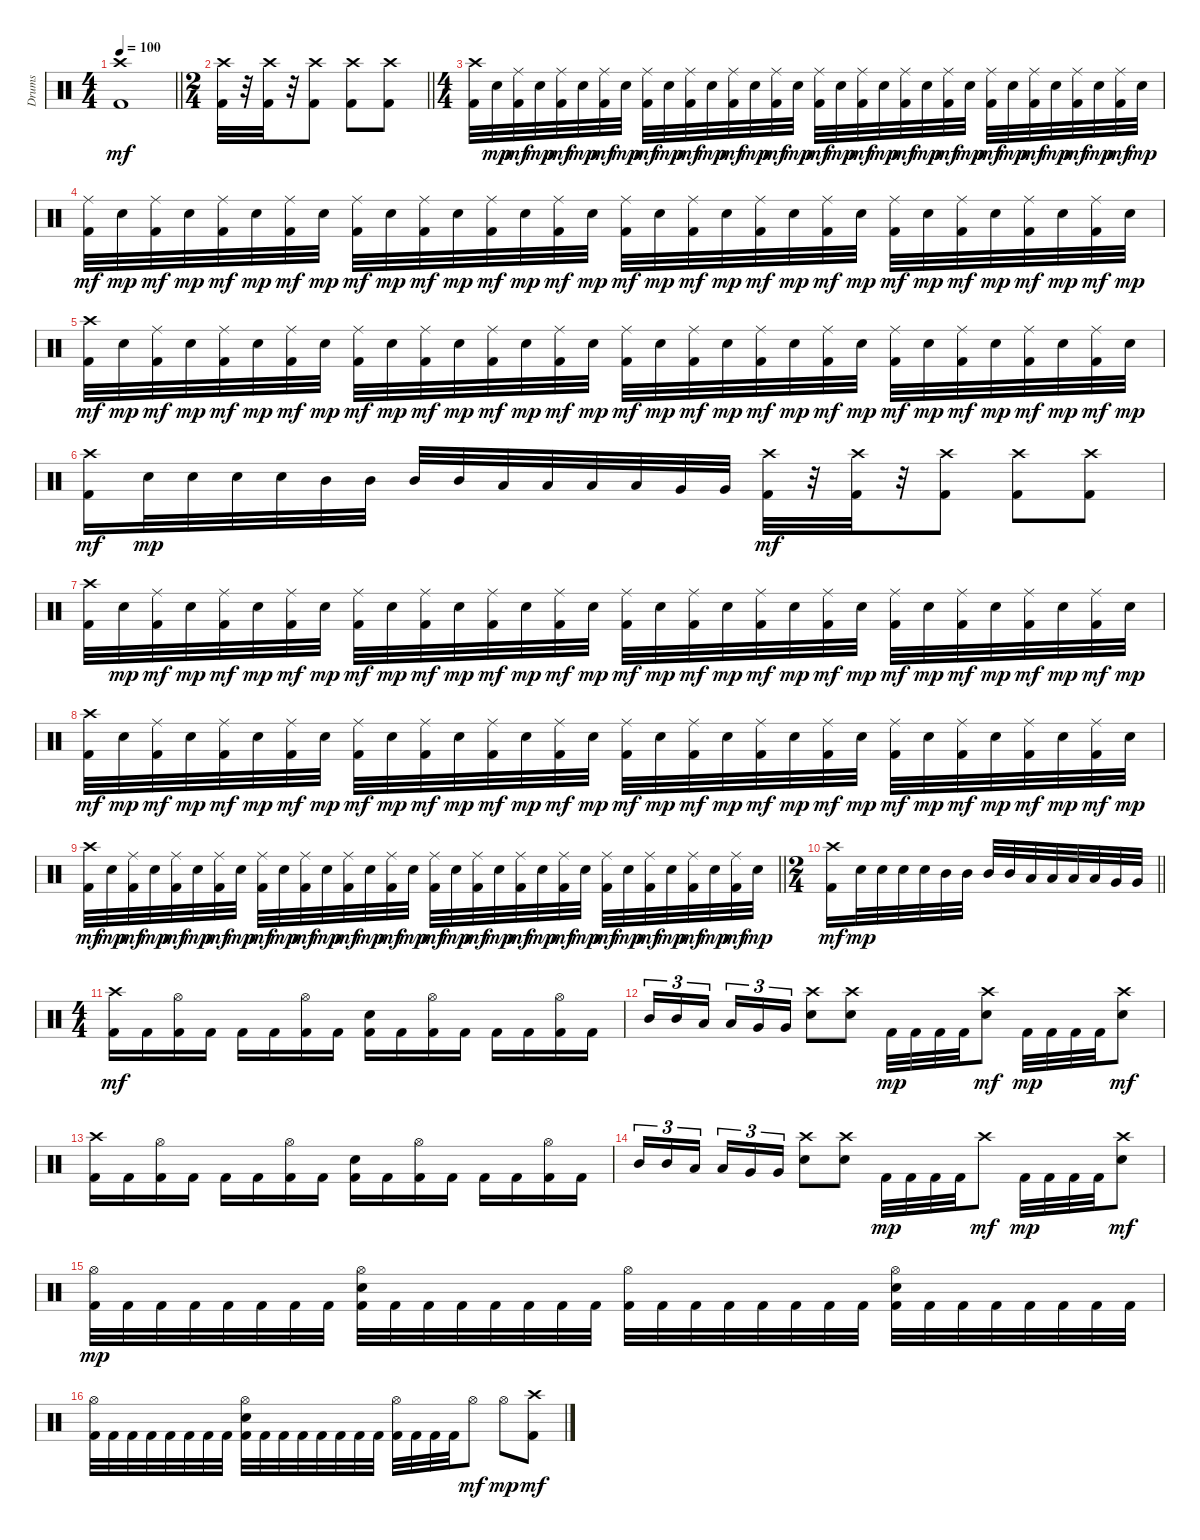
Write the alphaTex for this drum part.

\track ("Drums" "Drums") {instrument percussion}
\staff {score}
\articulation defaults
\ts (4 4)
\tempo 100
\clef neutral
\barLineRight lightlight
\ks c
("Crash high (hit)" "Kick (hit) 2").1{dy mf} |
\ts (2 4)
\barLineRight lightlight
("Crash high (hit)" "Kick (hit) 2").32 r.32 ("Crash high (hit)" "Kick (hit) 2").32 r.32 ("Crash high (hit)" "Kick (hit) 2").8 ("Crash high (hit)" "Kick (hit) 2").8 ("Crash high (hit)" "Kick (hit) 2").8 |
\ts (4 4)
("Crash high (hit)" "Kick (hit) 2").32 "Snare (hit) 2".32{dy mp} ("Ride (middle)" "Kick (hit) 2").32{dy mf} "Snare (hit) 2".32{dy mp} ("Ride (middle)" "Kick (hit) 2").32{dy mf} "Snare (hit) 2".32{dy mp} ("Ride (middle)" "Kick (hit) 2").32{dy mf} "Snare (hit) 2".32{dy mp} ("Ride (middle)" "Kick (hit) 2").32{dy mf} "Snare (hit) 2".32{dy mp} ("Ride (middle)" "Kick (hit) 2").32{dy mf} "Snare (hit) 2".32{dy mp} ("Ride (middle)" "Kick (hit) 2").32{dy mf} "Snare (hit) 2".32{dy mp} ("Ride (middle)" "Kick (hit) 2").32{dy mf} "Snare (hit) 2".32{dy mp} ("Ride (middle)" "Kick (hit) 2").32{dy mf} "Snare (hit) 2".32{dy mp} ("Ride (middle)" "Kick (hit) 2").32{dy mf} "Snare (hit) 2".32{dy mp} ("Ride (middle)" "Kick (hit) 2").32{dy mf} "Snare (hit) 2".32{dy mp} ("Ride (middle)" "Kick (hit) 2").32{dy mf} "Snare (hit) 2".32{dy mp} ("Ride (middle)" "Kick (hit) 2").32{dy mf} "Snare (hit) 2".32{dy mp} ("Ride (middle)" "Kick (hit) 2").32{dy mf} "Snare (hit) 2".32{dy mp} ("Ride (middle)" "Kick (hit) 2").32{dy mf} "Snare (hit) 2".32{dy mp} ("Ride (middle)" "Kick (hit) 2").32{dy mf} "Snare (hit) 2".32{dy mp} |
("Ride (middle)" "Kick (hit) 2").32{dy mf} "Snare (hit) 2".32{dy mp} ("Ride (middle)" "Kick (hit) 2").32{dy mf} "Snare (hit) 2".32{dy mp} ("Ride (middle)" "Kick (hit) 2").32{dy mf} "Snare (hit) 2".32{dy mp} ("Ride (middle)" "Kick (hit) 2").32{dy mf} "Snare (hit) 2".32{dy mp} ("Ride (middle)" "Kick (hit) 2").32{dy mf} "Snare (hit) 2".32{dy mp} ("Ride (middle)" "Kick (hit) 2").32{dy mf} "Snare (hit) 2".32{dy mp} ("Ride (middle)" "Kick (hit) 2").32{dy mf} "Snare (hit) 2".32{dy mp} ("Ride (middle)" "Kick (hit) 2").32{dy mf} "Snare (hit) 2".32{dy mp} ("Ride (middle)" "Kick (hit) 2").32{dy mf} "Snare (hit) 2".32{dy mp} ("Ride (middle)" "Kick (hit) 2").32{dy mf} "Snare (hit) 2".32{dy mp} ("Ride (middle)" "Kick (hit) 2").32{dy mf} "Snare (hit) 2".32{dy mp} ("Ride (middle)" "Kick (hit) 2").32{dy mf} "Snare (hit) 2".32{dy mp} ("Ride (middle)" "Kick (hit) 2").32{dy mf} "Snare (hit) 2".32{dy mp} ("Ride (middle)" "Kick (hit) 2").32{dy mf} "Snare (hit) 2".32{dy mp} ("Ride (middle)" "Kick (hit) 2").32{dy mf} "Snare (hit) 2".32{dy mp} ("Ride (middle)" "Kick (hit) 2").32{dy mf} "Snare (hit) 2".32{dy mp} |
("Crash high (hit)" "Kick (hit) 2").32{dy mf} "Snare (hit) 2".32{dy mp} ("Ride (middle)" "Kick (hit) 2").32{dy mf} "Snare (hit) 2".32{dy mp} ("Ride (middle)" "Kick (hit) 2").32{dy mf} "Snare (hit) 2".32{dy mp} ("Ride (middle)" "Kick (hit) 2").32{dy mf} "Snare (hit) 2".32{dy mp} ("Ride (middle)" "Kick (hit) 2").32{dy mf} "Snare (hit) 2".32{dy mp} ("Ride (middle)" "Kick (hit) 2").32{dy mf} "Snare (hit) 2".32{dy mp} ("Ride (middle)" "Kick (hit) 2").32{dy mf} "Snare (hit) 2".32{dy mp} ("Ride (middle)" "Kick (hit) 2").32{dy mf} "Snare (hit) 2".32{dy mp} ("Ride (middle)" "Kick (hit) 2").32{dy mf} "Snare (hit) 2".32{dy mp} ("Ride (middle)" "Kick (hit) 2").32{dy mf} "Snare (hit) 2".32{dy mp} ("Ride (middle)" "Kick (hit) 2").32{dy mf} "Snare (hit) 2".32{dy mp} ("Ride (middle)" "Kick (hit) 2").32{dy mf} "Snare (hit) 2".32{dy mp} ("Ride (middle)" "Kick (hit) 2").32{dy mf} "Snare (hit) 2".32{dy mp} ("Ride (middle)" "Kick (hit) 2").32{dy mf} "Snare (hit) 2".32{dy mp} ("Ride (middle)" "Kick (hit) 2").32{dy mf} "Snare (hit) 2".32{dy mp} ("Ride (middle)" "Kick (hit) 2").32{dy mf} "Snare (hit) 2".32{dy mp} |
("Crash high (hit)" "Kick (hit) 2").16{dy mf} "Snare (hit) 2".32{dy mp} "Snare (hit) 2".32 "Snare (hit) 2".32 "Snare (hit) 2".32 "Mid Tom (hit)".32 "Mid Tom (hit)".32 "Mid Tom (hit)".32 "Mid Tom (hit)".32 "Low Tom (hit)".32 "Low Tom (hit)".32 "Low Tom (hit)".32 "Low Tom (hit)".32 "Very Low Tom (hit)".32 "Very Low Tom (hit)".32 ("Crash high (hit)" "Kick (hit) 2").32{dy mf} r.32 ("Crash high (hit)" "Kick (hit) 2").32 r.32 ("Crash high (hit)" "Kick (hit) 2").8 ("Crash high (hit)" "Kick (hit) 2").8 ("Crash high (hit)" "Kick (hit) 2").8 |
("Crash high (hit)" "Kick (hit) 2").32 "Snare (hit) 2".32{dy mp} ("Ride (middle)" "Kick (hit) 2").32{dy mf} "Snare (hit) 2".32{dy mp} ("Ride (middle)" "Kick (hit) 2").32{dy mf} "Snare (hit) 2".32{dy mp} ("Ride (middle)" "Kick (hit) 2").32{dy mf} "Snare (hit) 2".32{dy mp} ("Ride (middle)" "Kick (hit) 2").32{dy mf} "Snare (hit) 2".32{dy mp} ("Ride (middle)" "Kick (hit) 2").32{dy mf} "Snare (hit) 2".32{dy mp} ("Ride (middle)" "Kick (hit) 2").32{dy mf} "Snare (hit) 2".32{dy mp} ("Ride (middle)" "Kick (hit) 2").32{dy mf} "Snare (hit) 2".32{dy mp} ("Ride (middle)" "Kick (hit) 2").32{dy mf} "Snare (hit) 2".32{dy mp} ("Ride (middle)" "Kick (hit) 2").32{dy mf} "Snare (hit) 2".32{dy mp} ("Ride (middle)" "Kick (hit) 2").32{dy mf} "Snare (hit) 2".32{dy mp} ("Ride (middle)" "Kick (hit) 2").32{dy mf} "Snare (hit) 2".32{dy mp} ("Ride (middle)" "Kick (hit) 2").32{dy mf} "Snare (hit) 2".32{dy mp} ("Ride (middle)" "Kick (hit) 2").32{dy mf} "Snare (hit) 2".32{dy mp} ("Ride (middle)" "Kick (hit) 2").32{dy mf} "Snare (hit) 2".32{dy mp} ("Ride (middle)" "Kick (hit) 2").32{dy mf} "Snare (hit) 2".32{dy mp} |
("Crash high (hit)" "Kick (hit) 2").32{dy mf} "Snare (hit) 2".32{dy mp} ("Ride (middle)" "Kick (hit) 2").32{dy mf} "Snare (hit) 2".32{dy mp} ("Ride (middle)" "Kick (hit) 2").32{dy mf} "Snare (hit) 2".32{dy mp} ("Ride (middle)" "Kick (hit) 2").32{dy mf} "Snare (hit) 2".32{dy mp} ("Ride (middle)" "Kick (hit) 2").32{dy mf} "Snare (hit) 2".32{dy mp} ("Ride (middle)" "Kick (hit) 2").32{dy mf} "Snare (hit) 2".32{dy mp} ("Ride (middle)" "Kick (hit) 2").32{dy mf} "Snare (hit) 2".32{dy mp} ("Ride (middle)" "Kick (hit) 2").32{dy mf} "Snare (hit) 2".32{dy mp} ("Ride (middle)" "Kick (hit) 2").32{dy mf} "Snare (hit) 2".32{dy mp} ("Ride (middle)" "Kick (hit) 2").32{dy mf} "Snare (hit) 2".32{dy mp} ("Ride (middle)" "Kick (hit) 2").32{dy mf} "Snare (hit) 2".32{dy mp} ("Ride (middle)" "Kick (hit) 2").32{dy mf} "Snare (hit) 2".32{dy mp} ("Ride (middle)" "Kick (hit) 2").32{dy mf} "Snare (hit) 2".32{dy mp} ("Ride (middle)" "Kick (hit) 2").32{dy mf} "Snare (hit) 2".32{dy mp} ("Ride (middle)" "Kick (hit) 2").32{dy mf} "Snare (hit) 2".32{dy mp} ("Ride (middle)" "Kick (hit) 2").32{dy mf} "Snare (hit) 2".32{dy mp} |
\barLineRight lightlight
("Crash high (hit)" "Kick (hit) 2").32{dy mf} "Snare (hit) 2".32{dy mp} ("Ride (middle)" "Kick (hit) 2").32{dy mf} "Snare (hit) 2".32{dy mp} ("Ride (middle)" "Kick (hit) 2").32{dy mf} "Snare (hit) 2".32{dy mp} ("Ride (middle)" "Kick (hit) 2").32{dy mf} "Snare (hit) 2".32{dy mp} ("Ride (middle)" "Kick (hit) 2").32{dy mf} "Snare (hit) 2".32{dy mp} ("Ride (middle)" "Kick (hit) 2").32{dy mf} "Snare (hit) 2".32{dy mp} ("Ride (middle)" "Kick (hit) 2").32{dy mf} "Snare (hit) 2".32{dy mp} ("Ride (middle)" "Kick (hit) 2").32{dy mf} "Snare (hit) 2".32{dy mp} ("Ride (middle)" "Kick (hit) 2").32{dy mf} "Snare (hit) 2".32{dy mp} ("Ride (middle)" "Kick (hit) 2").32{dy mf} "Snare (hit) 2".32{dy mp} ("Ride (middle)" "Kick (hit) 2").32{dy mf} "Snare (hit) 2".32{dy mp} ("Ride (middle)" "Kick (hit) 2").32{dy mf} "Snare (hit) 2".32{dy mp} ("Ride (middle)" "Kick (hit) 2").32{dy mf} "Snare (hit) 2".32{dy mp} ("Ride (middle)" "Kick (hit) 2").32{dy mf} "Snare (hit) 2".32{dy mp} ("Ride (middle)" "Kick (hit) 2").32{dy mf} "Snare (hit) 2".32{dy mp} ("Ride (middle)" "Kick (hit) 2").32{dy mf} "Snare (hit) 2".32{dy mp} |
\ts (2 4)
\barLineRight lightlight
("Crash high (hit)" "Kick (hit) 2").16{dy mf} "Snare (hit) 2".32{dy mp} "Snare (hit) 2".32 "Snare (hit) 2".32 "Snare (hit) 2".32 "Mid Tom (hit)".32 "Mid Tom (hit)".32 "Mid Tom (hit)".32 "Mid Tom (hit)".32 "Low Tom (hit)".32 "Low Tom (hit)".32 "Low Tom (hit)".32 "Low Tom (hit)".32 "Very Low Tom (hit)".32 "Very Low Tom (hit)".32 |
\ts (4 4)
("Crash high (hit)" "Kick (hit) 2").16{dy mf} "Kick (hit) 2".16 ("Hi-Hat (open)" "Kick (hit) 2").16 "Kick (hit) 2".16 "Kick (hit) 2".16 "Kick (hit) 2".16 ("Hi-Hat (open)" "Kick (hit) 2").16 "Kick (hit) 2".16 ("Snare (hit) 2" "Kick (hit) 2").16 "Kick (hit) 2".16 ("Hi-Hat (open)" "Kick (hit) 2").16 "Kick (hit) 2".16 "Kick (hit) 2".16 "Kick (hit) 2".16 ("Hi-Hat (open)" "Kick (hit) 2").16 "Kick (hit) 2".16 |
"Mid Tom (hit)".16{tu (3 2)} "Mid Tom (hit)".16{tu (3 2)} "Low Tom (hit)".16{tu (3 2) beam splitsecondary} "Low Tom (hit)".16{tu (3 2)} "Very Low Tom (hit)".16{tu (3 2)} "Very Low Tom (hit)".16{tu (3 2)} ("Crash high (hit)" "Snare (hit) 2").8 ("Crash high (hit)" "Snare (hit) 2").8 "Kick (hit) 2".32{dy mp} "Kick (hit) 2".32 "Kick (hit) 2".32 "Kick (hit) 2".32 ("Crash high (hit)" "Snare (hit) 2").8{dy mf} "Kick (hit) 2".32{dy mp} "Kick (hit) 2".32 "Kick (hit) 2".32 "Kick (hit) 2".32 ("Crash high (hit)" "Snare (hit) 2").8{dy mf} |
("Crash high (hit)" "Kick (hit) 2").16 "Kick (hit) 2".16 ("Hi-Hat (open)" "Kick (hit) 2").16 "Kick (hit) 2".16 "Kick (hit) 2".16 "Kick (hit) 2".16 ("Hi-Hat (open)" "Kick (hit) 2").16 "Kick (hit) 2".16 ("Snare (hit) 2" "Kick (hit) 2").16 "Kick (hit) 2".16 ("Hi-Hat (open)" "Kick (hit) 2").16 "Kick (hit) 2".16 "Kick (hit) 2".16 "Kick (hit) 2".16 ("Hi-Hat (open)" "Kick (hit) 2").16 "Kick (hit) 2".16 |
"Mid Tom (hit)".16{tu (3 2)} "Mid Tom (hit)".16{tu (3 2)} "Low Tom (hit)".16{tu (3 2) beam splitsecondary} "Low Tom (hit)".16{tu (3 2)} "Very Low Tom (hit)".16{tu (3 2)} "Very Low Tom (hit)".16{tu (3 2)} ("Crash high (hit)" "Snare (hit) 2").8 ("Crash high (hit)" "Snare (hit) 2").8 "Kick (hit) 2".32{dy mp} "Kick (hit) 2".32 "Kick (hit) 2".32 "Kick (hit) 2".32 "Crash high (hit)".8{dy mf} "Kick (hit) 2".32{dy mp} "Kick (hit) 2".32 "Kick (hit) 2".32 "Kick (hit) 2".32 ("Crash high (hit)" "Snare (hit) 2").8{dy mf} |
("Hi-Hat (open)" "Kick (hit) 2").32{dy mp} "Kick (hit) 2".32 "Kick (hit) 2".32 "Kick (hit) 2".32 "Kick (hit) 2".32 "Kick (hit) 2".32 "Kick (hit) 2".32 "Kick (hit) 2".32 ("Hi-Hat (open)" "Snare (hit) 2" "Kick (hit) 2").32 "Kick (hit) 2".32 "Kick (hit) 2".32 "Kick (hit) 2".32 "Kick (hit) 2".32 "Kick (hit) 2".32 "Kick (hit) 2".32 "Kick (hit) 2".32 ("Hi-Hat (open)" "Kick (hit) 2").32 "Kick (hit) 2".32 "Kick (hit) 2".32 "Kick (hit) 2".32 "Kick (hit) 2".32 "Kick (hit) 2".32 "Kick (hit) 2".32 "Kick (hit) 2".32 ("Hi-Hat (open)" "Snare (hit) 2" "Kick (hit) 2").32 "Kick (hit) 2".32 "Kick (hit) 2".32 "Kick (hit) 2".32 "Kick (hit) 2".32 "Kick (hit) 2".32 "Kick (hit) 2".32 "Kick (hit) 2".32 |
("Hi-Hat (open)" "Kick (hit) 2").32 "Kick (hit) 2".32 "Kick (hit) 2".32 "Kick (hit) 2".32 "Kick (hit) 2".32 "Kick (hit) 2".32 "Kick (hit) 2".32 "Kick (hit) 2".32 ("Hi-Hat (open)" "Snare (hit) 2" "Kick (hit) 2").32 "Kick (hit) 2".32 "Kick (hit) 2".32 "Kick (hit) 2".32 "Kick (hit) 2".32 "Kick (hit) 2".32 "Kick (hit) 2".32 "Kick (hit) 2".32 ("Hi-Hat (open)" "Kick (hit) 2").32 "Kick (hit) 2".32 "Kick (hit) 2".32 "Kick (hit) 2".32 "Hi-Hat (open)".8{dy mf} "Hi-Hat (open)".8{dy mp} ("Crash high (hit)" "Kick (hit) 2").8{dy mf}
